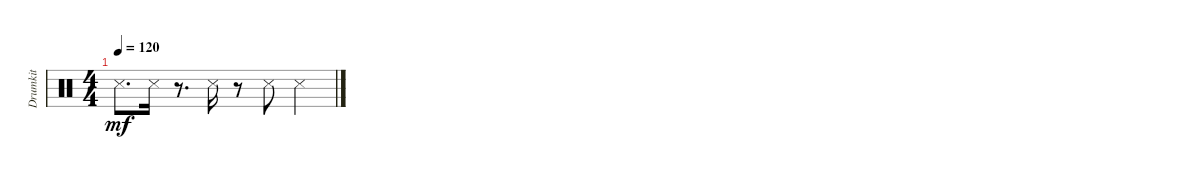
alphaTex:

\track ("Drumkit" "Drumkit") {instrument percussion}
\staff {score}
\articulation defaults
\ts (4 4)
\tempo 120
\clef neutral
\ks c "Snare (side stick) 3".8{d dy mf} "Snare (side stick) 3".16
r.8{d} "Snare (side stick) 3".16 r.8 "Snare (side stick) 3".8 "Snare (side stick) 3".4
